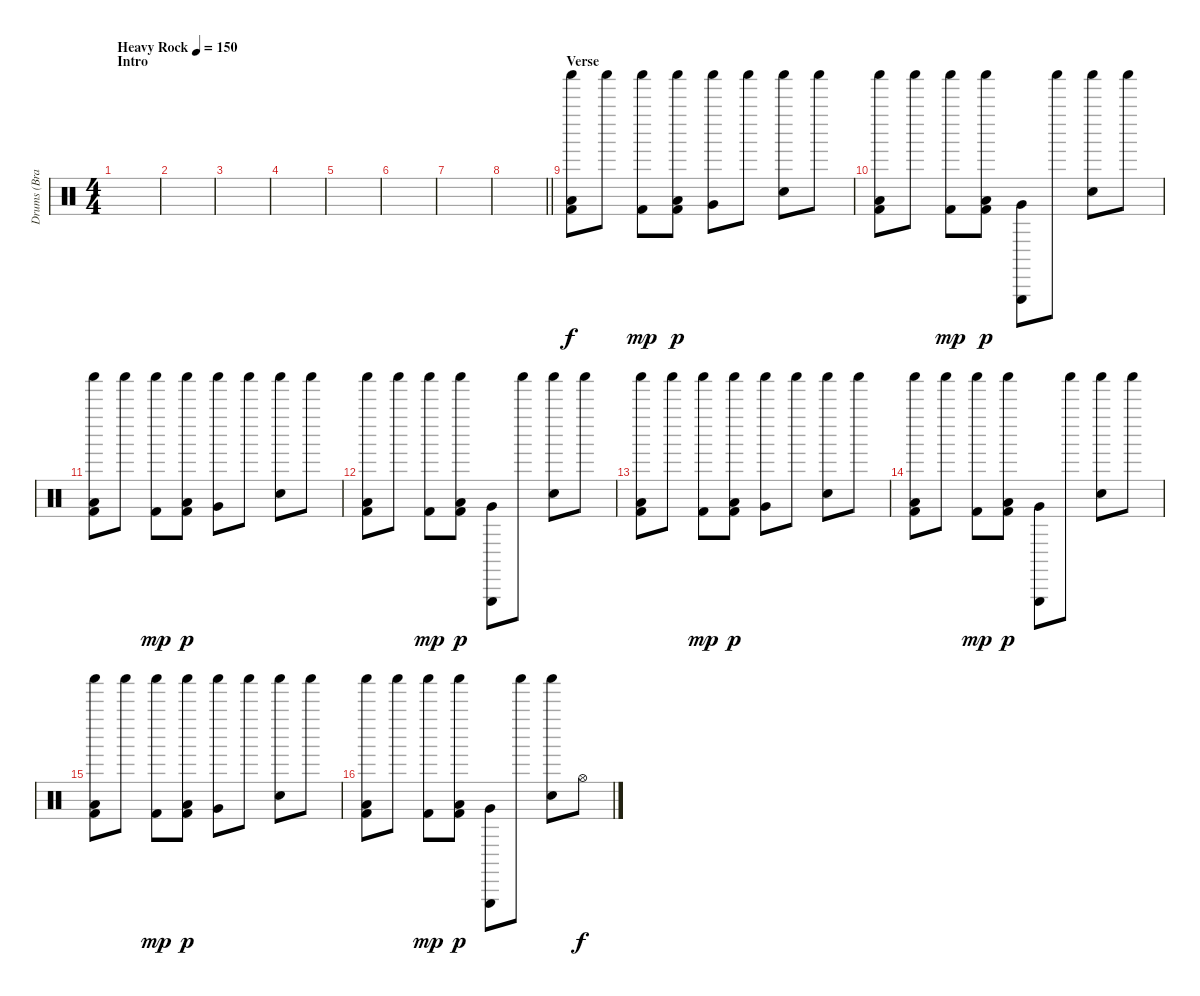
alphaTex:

\track ("Drums (Brandon Saller)" "Drums (Bra") {instrument percussion}
\staff {score}
\articulation defaults
\ts (4 4)
\section ("" "Intro")
\tempo (150 "Heavy Rock")
\clef neutral
\ks c
|
|
|
|
|
|
|
\barLineRight lightlight
|
\section ("" "Verse")
("Shaker (hit)" "Low Tom (hit)" "Kick (hit) 2").8 "Shaker (hit)".8 ("Shaker (hit)" "Kick (hit) 2").8{dy mp} ("Shaker (hit)" "Low Tom (hit)" "Kick (hit) 2").8{dy p} ("Shaker (hit)" "Very Low Tom (hit)").8 "Shaker (hit)".8 ("Shaker (hit)" "Snare (hit) 2").8 "Shaker (hit)".8 |
("Shaker (hit)" "Low Tom (hit)" "Kick (hit) 2").8 "Shaker (hit)".8 ("Shaker (hit)" "Kick (hit) 2").8{dy mp} ("Shaker (hit)" "Low Tom (hit)" "Kick (hit) 2").8{dy p} ("Triangle (hit)" "Very Low Tom (hit)").8 "Shaker (hit)".8 ("Shaker (hit)" "Snare (hit) 2").8 "Shaker (hit)".8 |
("Shaker (hit)" "Low Tom (hit)" "Kick (hit) 2").8 "Shaker (hit)".8 ("Shaker (hit)" "Kick (hit) 2").8{dy mp} ("Shaker (hit)" "Low Tom (hit)" "Kick (hit) 2").8{dy p} ("Shaker (hit)" "Very Low Tom (hit)").8 "Shaker (hit)".8 ("Shaker (hit)" "Snare (hit) 2").8 "Shaker (hit)".8 |
("Shaker (hit)" "Low Tom (hit)" "Kick (hit) 2").8 "Shaker (hit)".8 ("Shaker (hit)" "Kick (hit) 2").8{dy mp} ("Shaker (hit)" "Low Tom (hit)" "Kick (hit) 2").8{dy p} ("Triangle (hit)" "Very Low Tom (hit)").8 "Shaker (hit)".8 ("Shaker (hit)" "Snare (hit) 2").8 "Shaker (hit)".8 |
("Shaker (hit)" "Low Tom (hit)" "Kick (hit) 2").8 "Shaker (hit)".8 ("Shaker (hit)" "Kick (hit) 2").8{dy mp} ("Shaker (hit)" "Low Tom (hit)" "Kick (hit) 2").8{dy p} ("Shaker (hit)" "Very Low Tom (hit)").8 "Shaker (hit)".8 ("Shaker (hit)" "Snare (hit) 2").8 "Shaker (hit)".8 |
("Shaker (hit)" "Low Tom (hit)" "Kick (hit) 2").8 "Shaker (hit)".8 ("Shaker (hit)" "Kick (hit) 2").8{dy mp} ("Shaker (hit)" "Low Tom (hit)" "Kick (hit) 2").8{dy p} ("Triangle (hit)" "Very Low Tom (hit)").8 "Shaker (hit)".8 ("Shaker (hit)" "Snare (hit) 2").8 "Shaker (hit)".8 |
("Shaker (hit)" "Low Tom (hit)" "Kick (hit) 2").8 "Shaker (hit)".8 ("Shaker (hit)" "Kick (hit) 2").8{dy mp} ("Shaker (hit)" "Low Tom (hit)" "Kick (hit) 2").8{dy p} ("Shaker (hit)" "Very Low Tom (hit)").8 "Shaker (hit)".8 ("Shaker (hit)" "Snare (hit) 2").8 "Shaker (hit)".8 |
("Shaker (hit)" "Low Tom (hit)" "Kick (hit) 2").8 "Shaker (hit)".8 ("Shaker (hit)" "Kick (hit) 2").8{dy mp} ("Shaker (hit)" "Low Tom (hit)" "Kick (hit) 2").8{dy p} ("Triangle (hit)" "Very Low Tom (hit)").8 "Shaker (hit)".8 ("Shaker (hit)" "Snare (hit) 2").8 "Hi-Hat (open)".8{dy f}
